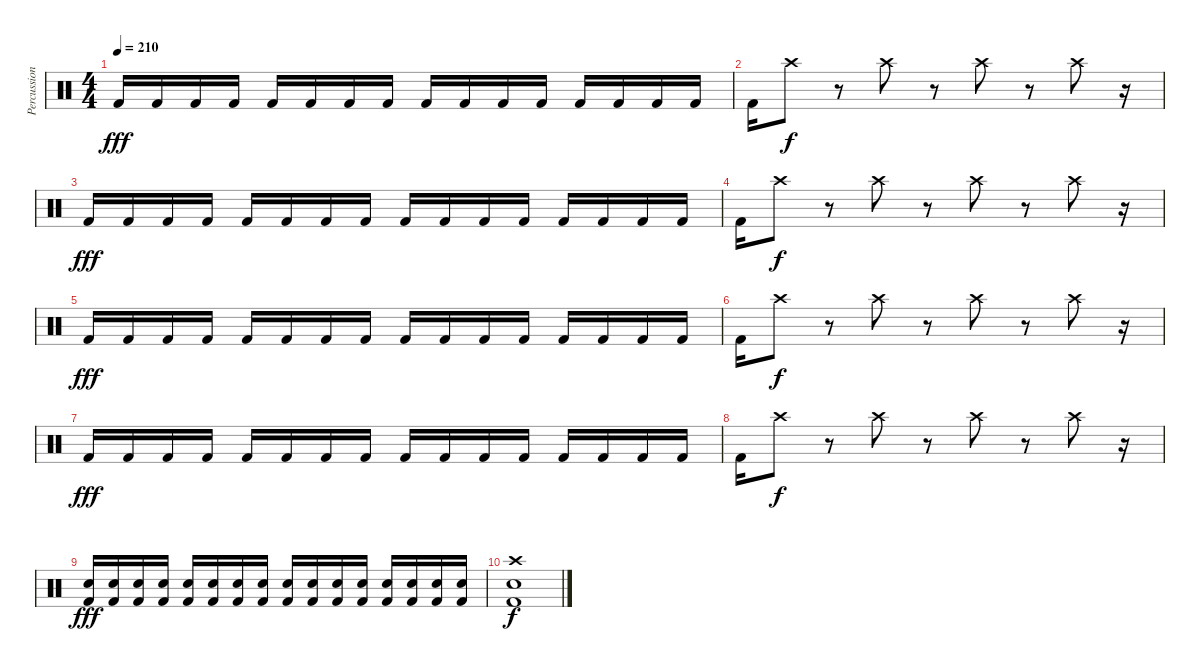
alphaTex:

\track ("Percussion" "Percussion") {instrument percussion}
\staff {score}
\articulation defaults
\ts (4 4)
\tempo 210
\clef neutral
\ks c "Kick (hit) 2".16{dy fff} "Kick (hit) 2".16 "Kick (hit) 2".16 "Kick (hit) 2".16 "Kick (hit) 2".16 "Kick (hit) 2".16 "Kick (hit) 2".16 "Kick (hit) 2".16 "Kick (hit) 2".16 "Kick (hit) 2".16 "Kick (hit) 2".16 "Kick (hit) 2".16 "Kick (hit) 2".16 "Kick (hit) 2".16 "Kick (hit) 2".16 "Kick (hit) 2".16
|
"Kick (hit) 2".16 "Crash high (hit)".8{dy f} r.8 "Crash high (hit)".8 r.8 "Crash high (hit)".8 r.8 "Crash high (hit)".8 r.16 |
"Kick (hit) 2".16{dy fff} "Kick (hit) 2".16 "Kick (hit) 2".16 "Kick (hit) 2".16 "Kick (hit) 2".16 "Kick (hit) 2".16 "Kick (hit) 2".16 "Kick (hit) 2".16 "Kick (hit) 2".16 "Kick (hit) 2".16 "Kick (hit) 2".16 "Kick (hit) 2".16 "Kick (hit) 2".16 "Kick (hit) 2".16 "Kick (hit) 2".16 "Kick (hit) 2".16 |
"Kick (hit) 2".16 "Crash high (hit)".8{dy f} r.8 "Crash high (hit)".8 r.8 "Crash high (hit)".8 r.8 "Crash high (hit)".8 r.16 |
"Kick (hit) 2".16{dy fff} "Kick (hit) 2".16 "Kick (hit) 2".16 "Kick (hit) 2".16 "Kick (hit) 2".16 "Kick (hit) 2".16 "Kick (hit) 2".16 "Kick (hit) 2".16 "Kick (hit) 2".16 "Kick (hit) 2".16 "Kick (hit) 2".16 "Kick (hit) 2".16 "Kick (hit) 2".16 "Kick (hit) 2".16 "Kick (hit) 2".16 "Kick (hit) 2".16 |
"Kick (hit) 2".16 "Crash high (hit)".8{dy f} r.8 "Crash high (hit)".8 r.8 "Crash high (hit)".8 r.8 "Crash high (hit)".8 r.16 |
"Kick (hit) 2".16{dy fff} "Kick (hit) 2".16 "Kick (hit) 2".16 "Kick (hit) 2".16 "Kick (hit) 2".16 "Kick (hit) 2".16 "Kick (hit) 2".16 "Kick (hit) 2".16 "Kick (hit) 2".16 "Kick (hit) 2".16 "Kick (hit) 2".16 "Kick (hit) 2".16 "Kick (hit) 2".16 "Kick (hit) 2".16 "Kick (hit) 2".16 "Kick (hit) 2".16 |
"Kick (hit) 2".16 "Crash high (hit)".8{dy f} r.8 "Crash high (hit)".8 r.8 "Crash high (hit)".8 r.8 "Crash high (hit)".8 r.16 |
("Electric Snare (hit)" "Kick (hit) 2").16{dy fff} ("Electric Snare (hit)" "Kick (hit) 2").16 ("Electric Snare (hit)" "Kick (hit) 2").16 ("Electric Snare (hit)" "Kick (hit) 2").16 ("Electric Snare (hit)" "Kick (hit) 2").16 ("Electric Snare (hit)" "Kick (hit) 2").16 ("Electric Snare (hit)" "Kick (hit) 2").16 ("Electric Snare (hit)" "Kick (hit) 2").16 ("Electric Snare (hit)" "Kick (hit) 2").16 ("Electric Snare (hit)" "Kick (hit) 2").16 ("Electric Snare (hit)" "Kick (hit) 2").16 ("Electric Snare (hit)" "Kick (hit) 2").16 ("Electric Snare (hit)" "Kick (hit) 2").16 ("Electric Snare (hit)" "Kick (hit) 2").16 ("Electric Snare (hit)" "Kick (hit) 2").16 ("Electric Snare (hit)" "Kick (hit) 2").16 |
("Crash high (hit)" "Electric Snare (hit)" "Kick (hit) 2").1{dy f}
